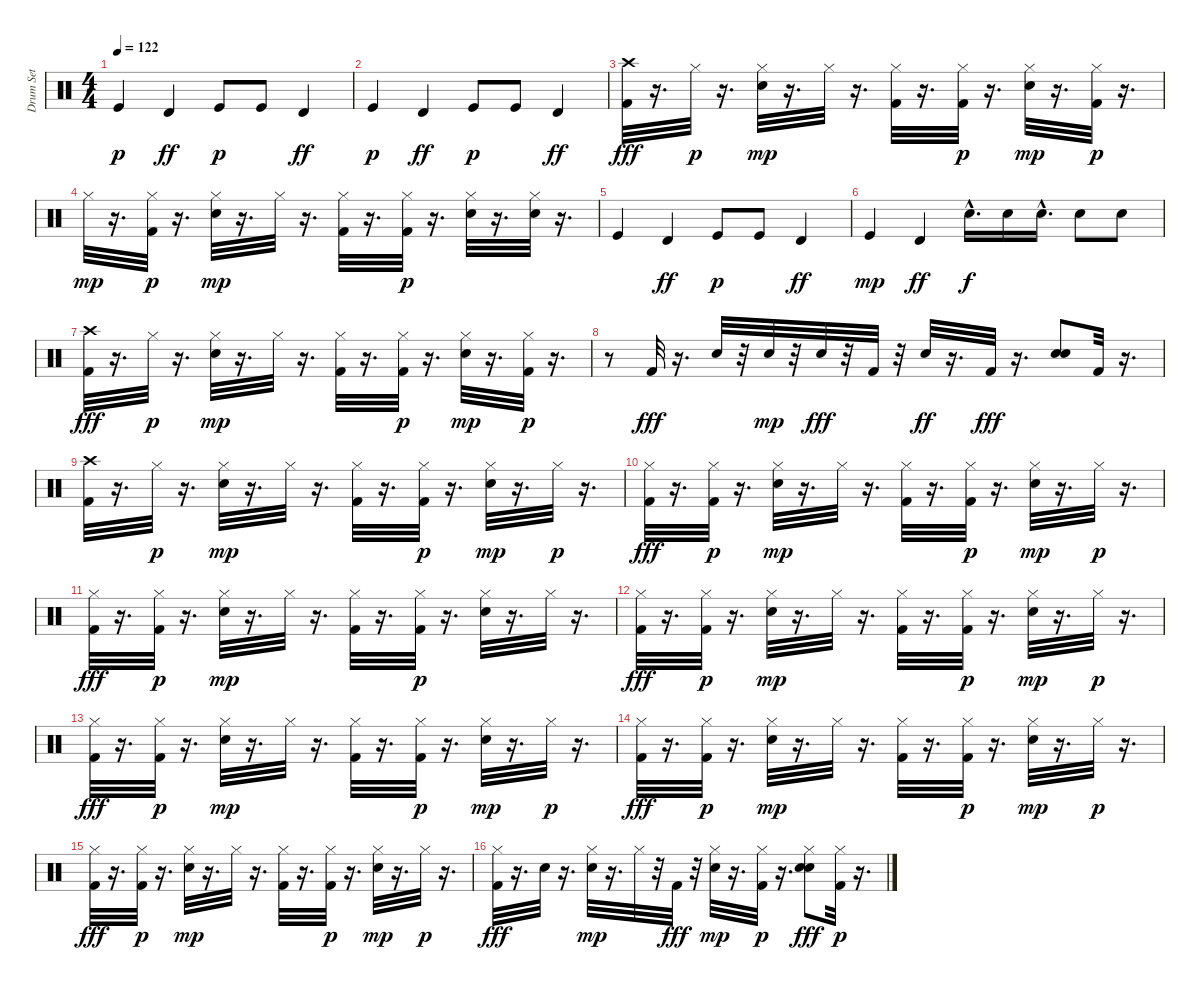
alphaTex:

\track ("Drum Set" "Drum Set") {instrument percussion}
\staff {score}
\articulation defaults
\ts (4 4)
\tempo 122
\clef neutral
\ks c "Kick (hit)".4{dy p} "Timbale high (hit)".4{dy ff} "Kick (hit)".8{dy p} "Kick (hit)".8 "Timbale high (hit)".4{dy ff}
|
"Kick (hit)".4{dy p} "Timbale high (hit)".4{dy ff} "Kick (hit)".8{dy p} "Kick (hit)".8 "Timbale high (hit)".4{dy ff} |
("Crash high (hit)" "Kick (hit) 2").32{dy fff} r.16{d} "Hi-Hat (closed)".32{dy p} r.16{d} ("Electric Snare (hit)" "Hi-Hat (closed)").32{dy mp} r.16{d} "Hi-Hat (closed)".32 r.16{d} ("Kick (hit) 2" "Hi-Hat (closed)").32 r.16{d} ("Kick (hit) 2" "Hi-Hat (closed)").32{dy p} r.16{d} ("Electric Snare (hit)" "Hi-Hat (closed)").32{dy mp} r.16{d} ("Kick (hit) 2" "Hi-Hat (closed)").32{dy p} r.16{d} |
"Hi-Hat (closed)".32{dy mp} r.16{d} ("Kick (hit) 2" "Hi-Hat (closed)").32{dy p} r.16{d} ("Electric Snare (hit)" "Hi-Hat (closed)").32{dy mp} r.16{d} "Hi-Hat (closed)".32 r.16{d} ("Kick (hit) 2" "Hi-Hat (closed)").32 r.16{d} ("Kick (hit) 2" "Hi-Hat (closed)").32{dy p} r.16{d} ("Electric Snare (hit)" "Hi-Hat (closed)").32 r.16{d} ("Electric Snare (hit)" "Hi-Hat (closed)").32 r.16{d} |
"Kick (hit)".4 "Timbale high (hit)".4{dy ff} "Kick (hit)".8{dy p} "Kick (hit)".8 "Timbale high (hit)".4{dy ff} |
"Kick (hit)".4{dy mp} "Timbale high (hit)".4{dy ff} "Electric Snare (hit)"{hac}.16{d dy f} "Electric Snare (hit)".16 "Electric Snare (hit)"{hac}.16{d} "Electric Snare (hit)".8 "Electric Snare (hit)".8 |
("Crash high (hit)" "Kick (hit) 2").32{dy fff} r.16{d} "Hi-Hat (closed)".32{dy p} r.16{d} ("Electric Snare (hit)" "Hi-Hat (closed)").32{dy mp} r.16{d} "Hi-Hat (closed)".32 r.16{d} ("Kick (hit) 2" "Hi-Hat (closed)").32 r.16{d} ("Kick (hit) 2" "Hi-Hat (closed)").32{dy p} r.16{d} ("Electric Snare (hit)" "Hi-Hat (closed)").32{dy mp} r.16{d} ("Kick (hit) 2" "Hi-Hat (closed)").32{dy p} r.16{d} |
r.8 "Kick (hit) 2".32{dy fff} r.16{d} "Electric Snare (hit)".32 r.32 "Electric Snare (hit)".32{dy mp} r.32 "Electric Snare (hit)".32{dy fff} r.32 "Kick (hit) 2".32 r.32 "Electric Snare (hit)".32{dy ff} r.16{d} "Kick (hit) 2".32{dy fff} r.16{d} ("Electric Snare (hit)" "Electric Snare (hit)").8 "Kick (hit) 2".32 r.16{d} |
("Crash high (hit)" "Kick (hit) 2").32 r.16{d} "Hi-Hat (closed)".32{dy p} r.16{d} ("Electric Snare (hit)" "Hi-Hat (closed)").32{dy mp} r.16{d} "Hi-Hat (closed)".32 r.16{d} ("Kick (hit) 2" "Hi-Hat (closed)").32 r.16{d} ("Kick (hit) 2" "Hi-Hat (closed)").32{dy p} r.16{d} ("Electric Snare (hit)" "Hi-Hat (closed)").32{dy mp} r.16{d} "Hi-Hat (closed)".32{dy p} r.16{d} |
("Hi-Hat (closed)" "Kick (hit) 2").32{dy fff} r.16{d} ("Kick (hit) 2" "Hi-Hat (closed)").32{dy p} r.16{d} ("Electric Snare (hit)" "Hi-Hat (closed)").32{dy mp} r.16{d} "Hi-Hat (closed)".32 r.16{d} ("Kick (hit) 2" "Hi-Hat (closed)").32 r.16{d} ("Kick (hit) 2" "Hi-Hat (closed)").32{dy p} r.16{d} ("Electric Snare (hit)" "Hi-Hat (closed)").32{dy mp} r.16{d} "Hi-Hat (closed)".32{dy p} r.16{d} |
("Hi-Hat (closed)" "Kick (hit) 2").32{dy fff} r.16{d} ("Kick (hit) 2" "Hi-Hat (closed)").32{dy p} r.16{d} ("Electric Snare (hit)" "Hi-Hat (closed)").32{dy mp} r.16{d} "Hi-Hat (closed)".32 r.16{d} ("Kick (hit) 2" "Hi-Hat (closed)").32 r.16{d} ("Kick (hit) 2" "Hi-Hat (closed)").32{dy p} r.16{d} ("Electric Snare (hit)" "Hi-Hat (closed)").32 r.16{d} "Hi-Hat (closed)".32 r.16{d} |
("Hi-Hat (closed)" "Kick (hit) 2").32{dy fff} r.16{d} ("Kick (hit) 2" "Hi-Hat (closed)").32{dy p} r.16{d} ("Electric Snare (hit)" "Hi-Hat (closed)").32{dy mp} r.16{d} "Hi-Hat (closed)".32 r.16{d} ("Kick (hit) 2" "Hi-Hat (closed)").32 r.16{d} ("Kick (hit) 2" "Hi-Hat (closed)").32{dy p} r.16{d} ("Electric Snare (hit)" "Hi-Hat (closed)").32{dy mp} r.16{d} "Hi-Hat (closed)".32{dy p} r.16{d} |
("Hi-Hat (closed)" "Kick (hit) 2").32{dy fff} r.16{d} ("Kick (hit) 2" "Hi-Hat (closed)").32{dy p} r.16{d} ("Electric Snare (hit)" "Hi-Hat (closed)").32{dy mp} r.16{d} "Hi-Hat (closed)".32 r.16{d} ("Kick (hit) 2" "Hi-Hat (closed)").32 r.16{d} ("Kick (hit) 2" "Hi-Hat (closed)").32{dy p} r.16{d} ("Electric Snare (hit)" "Hi-Hat (closed)").32{dy mp} r.16{d} "Hi-Hat (closed)".32{dy p} r.16{d} |
("Hi-Hat (closed)" "Kick (hit) 2").32{dy fff} r.16{d} ("Kick (hit) 2" "Hi-Hat (closed)").32{dy p} r.16{d} ("Electric Snare (hit)" "Hi-Hat (closed)").32{dy mp} r.16{d} "Hi-Hat (closed)".32 r.16{d} ("Kick (hit) 2" "Hi-Hat (closed)").32 r.16{d} ("Kick (hit) 2" "Hi-Hat (closed)").32{dy p} r.16{d} ("Electric Snare (hit)" "Hi-Hat (closed)").32{dy mp} r.16{d} "Hi-Hat (closed)".32{dy p} r.16{d} |
("Hi-Hat (closed)" "Kick (hit) 2").32{dy fff} r.16{d} ("Kick (hit) 2" "Hi-Hat (closed)").32{dy p} r.16{d} ("Electric Snare (hit)" "Hi-Hat (closed)").32{dy mp} r.16{d} "Hi-Hat (closed)".32 r.16{d} ("Kick (hit) 2" "Hi-Hat (closed)").32 r.16{d} ("Kick (hit) 2" "Hi-Hat (closed)").32{dy p} r.16{d} ("Electric Snare (hit)" "Hi-Hat (closed)").32{dy mp} r.16{d} "Hi-Hat (closed)".32{dy p} r.16{d} |
("Hi-Hat (closed)" "Kick (hit) 2").32{dy fff} r.16{d} "Electric Snare (hit)".32 r.16{d} ("Electric Snare (hit)" "Hi-Hat (closed)").32{dy mp} r.16{d} "Hi-Hat (closed)".32 r.32 "Kick (hit) 2".32{dy fff} r.32 ("Electric Snare (hit)" "Hi-Hat (closed)").32{dy mp} r.16{d} ("Kick (hit) 2" "Hi-Hat (closed)").32{dy p} r.16{d} ("Electric Snare (hit)" "Hi-Hat (closed)" "Electric Snare (hit)").8{dy fff} ("Kick (hit) 2" "Hi-Hat (closed)").32{dy p} r.16{d}
